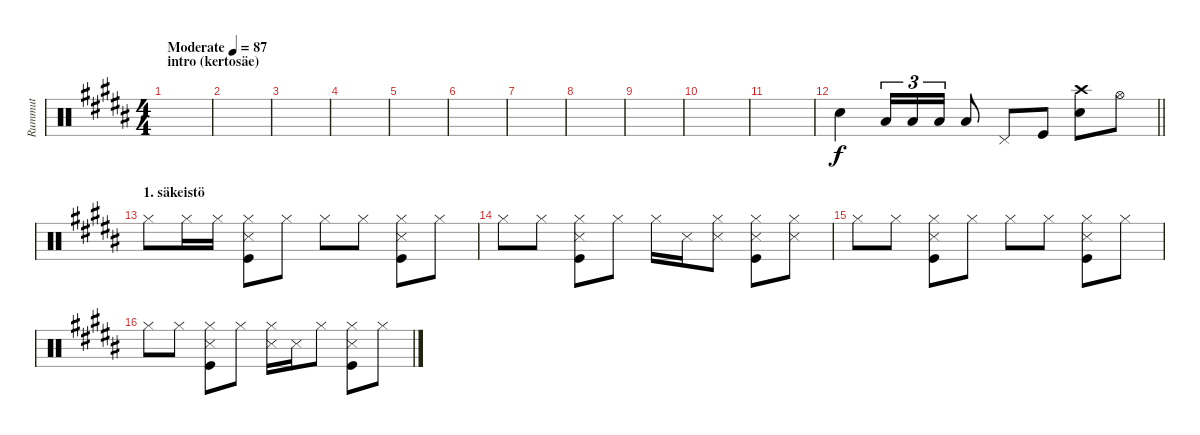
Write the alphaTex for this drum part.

\track ("Rummut" "Rummut") {instrument percussion}
\staff {score}
\articulation defaults
\ts (4 4)
\section ("" "intro (kertosäe)")
\tempo (87 "Moderate")
\clef neutral
\ks g#minor
|
|
|
|
|
|
|
|
|
|
|
\barLineRight lightlight "Snare (hit) 2".4 "Low Tom (hit)".16{tu (3 2)} "Low Tom (hit)".16{tu (3 2)} "Low Tom (hit)".16{tu (3 2)} "Low Tom (hit)".8 "Pedal Hi-Hat (hit)".8 "Kick (hit)".8
("Crash high (hit)" "Snare (hit) 2").8 "Hi-Hat (open)".8 |
\section ("" "1. säkeistö")
"Hi-Hat (closed)".8 "Hi-Hat (closed)".16 "Hi-Hat (closed)".16 ("Hi-Hat (closed)" "Snare (side stick) 3" "Kick (hit)").8 "Hi-Hat (closed)".8 "Hi-Hat (closed)".8 "Hi-Hat (closed)".8 ("Hi-Hat (closed)" "Snare (side stick) 3" "Kick (hit)").8 "Hi-Hat (closed)".8 |
"Hi-Hat (closed)".8 "Hi-Hat (closed)".8 ("Hi-Hat (closed)" "Snare (side stick) 3" "Kick (hit)").8 "Hi-Hat (closed)".8 "Hi-Hat (closed)".16 "Snare (side stick) 3".16 ("Hi-Hat (closed)" "Snare (side stick) 3").8 ("Hi-Hat (closed)" "Snare (side stick) 3" "Kick (hit)").8 ("Hi-Hat (closed)" "Snare (side stick) 3").8 |
"Hi-Hat (closed)".8 "Hi-Hat (closed)".8 ("Hi-Hat (closed)" "Snare (side stick) 3" "Kick (hit)").8 "Hi-Hat (closed)".8 "Hi-Hat (closed)".8 "Hi-Hat (closed)".8 ("Hi-Hat (closed)" "Snare (side stick) 3" "Kick (hit)").8 "Hi-Hat (closed)".8 |
"Hi-Hat (closed)".8 "Hi-Hat (closed)".8 ("Hi-Hat (closed)" "Snare (side stick) 3" "Kick (hit)").8 "Hi-Hat (closed)".8 ("Hi-Hat (closed)" "Snare (side stick) 3").16 "Snare (side stick) 3".16 "Hi-Hat (closed)".8 ("Hi-Hat (closed)" "Snare (side stick) 3" "Kick (hit)").8 "Hi-Hat (closed)".8
